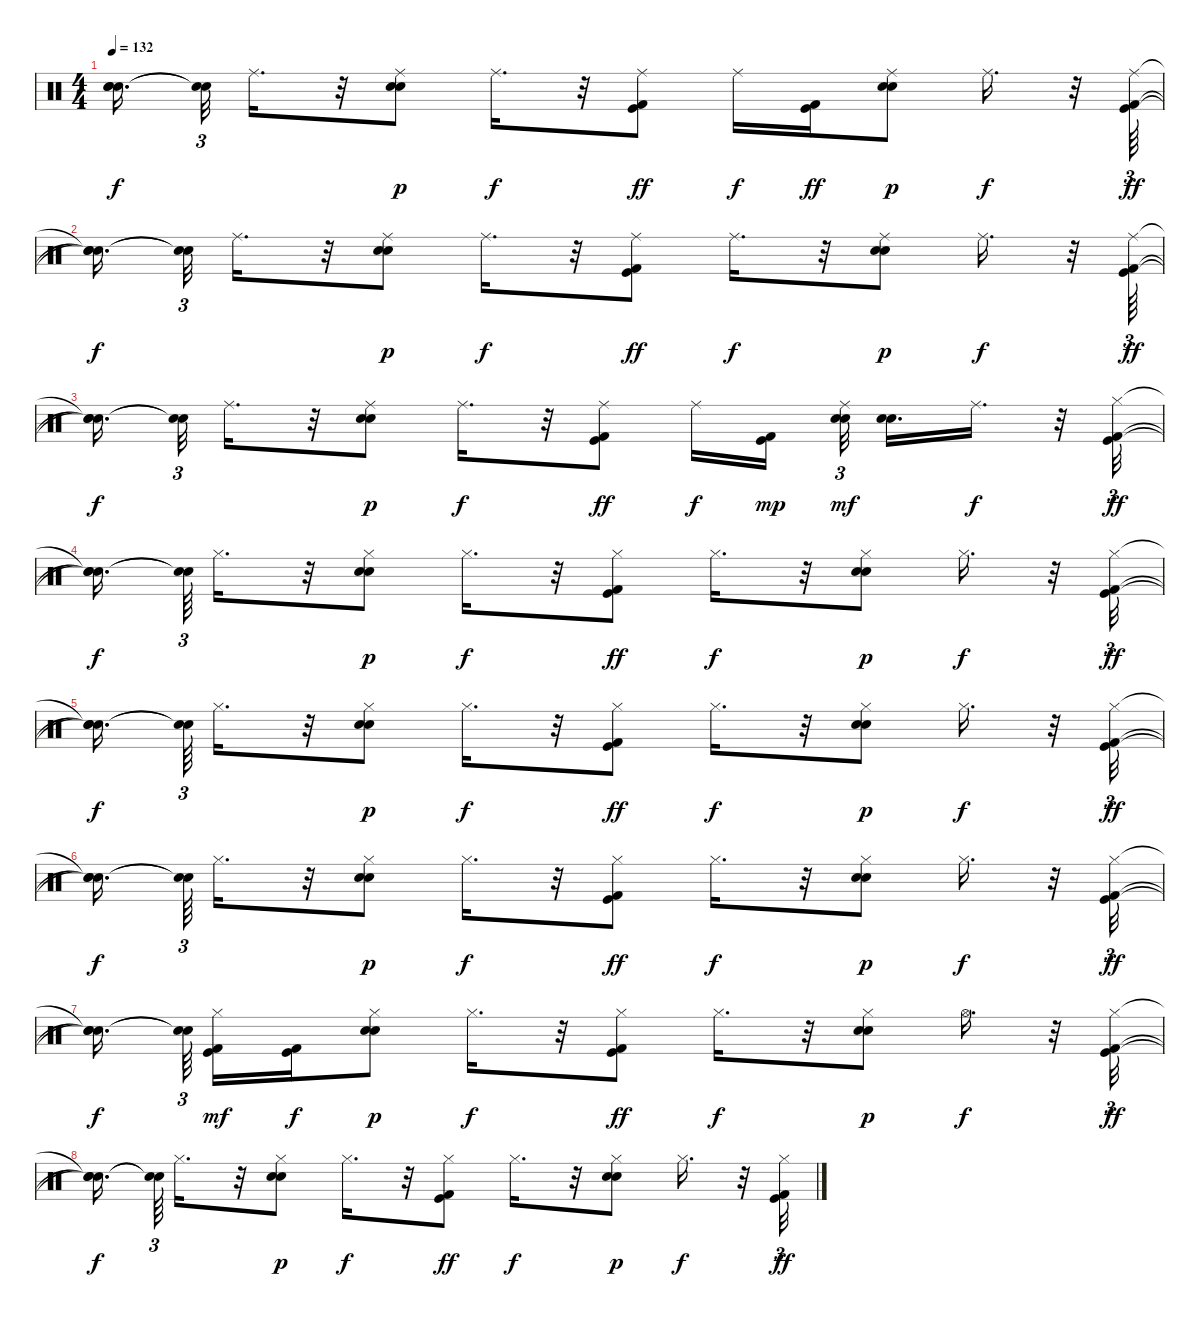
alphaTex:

\track "" {instrument percussion}
\staff {score}
\articulation defaults
\ts (4 4)
\tempo 132
\clef neutral
\ks c
("Snare (hit)"{t} "Snare (hit)"{t} "Snare (hit)"{t}).16{d dy f beam splitsecondary} ("Snare (hit)"{t} "Snare (hit)"{t}).32{tu (3 2)} "Ride (middle)".16{d} r.32 ("Electric Snare (hit)" "Snare (hit) 2" "Ride (middle)").8{dy p} "Ride (middle)".16{d dy f} r.32 ("Kick (hit) 2" "Kick (hit)" "Ride (middle)").8{dy ff} "Ride (middle)".16{dy f} ("Kick (hit) 2" "Kick (hit)").16{dy ff} ("Electric Snare (hit)" "Snare (hit) 2" "Ride (middle)").8{dy p} "Ride (middle)".16{d dy f} r.32 ("Kick (hit) 2" "Kick (hit)" "Ride (middle)").64{tu (3 2) dy ff} |
("Snare (hit)"{t} "Snare (hit)"{t} "Snare (hit)"{t}).16{d dy f beam splitsecondary} ("Snare (hit)"{t} "Snare (hit)"{t}).32{tu (3 2)} "Ride (middle)".16{d} r.32 ("Electric Snare (hit)" "Snare (hit) 2" "Ride (middle)").8{dy p} "Ride (middle)".16{d dy f} r.32 ("Kick (hit) 2" "Kick (hit)" "Ride (middle)").8{dy ff} "Ride (middle)".16{d dy f} r.32 ("Electric Snare (hit)" "Snare (hit) 2" "Ride (middle)").8{dy p} "Ride (middle)".16{d dy f} r.32 ("Kick (hit) 2" "Kick (hit)" "Ride (middle)").64{tu (3 2) dy ff} |
("Snare (hit)"{t} "Snare (hit)"{t} "Snare (hit)"{t}).16{d dy f beam splitsecondary} ("Snare (hit)"{t} "Snare (hit)"{t}).32{tu (3 2)} "Ride (middle)".16{d} r.32 ("Electric Snare (hit)" "Snare (hit) 2" "Ride (middle)").8{dy p} "Ride (middle)".16{d dy f} r.32 ("Kick (hit) 2" "Kick (hit)" "Ride (middle)").8{dy ff} "Ride (middle)".16{dy f} ("Kick (hit)" "Kick (hit) 2").16{dy mp beam splitsecondary} ("Electric Snare (hit)" "Snare (hit) 2" "Ride (middle)").32{tu (3 2) dy mf} ("Electric Snare (hit)" "Snare (hit) 2").16{d} "Ride (middle)".16{d dy f} r.32 ("Kick (hit) 2" "Kick (hit)" "Hi-Hat (closed)").32{tu (3 2) dy ff} |
("Snare (hit)"{t} "Snare (hit)"{t} "Snare (hit)"{t}).16{d dy f beam splitsecondary} ("Snare (hit)"{t} "Snare (hit)"{t}).64{tu (3 2)} "Hi-Hat (closed)".16{d} r.32 ("Electric Snare (hit)" "Snare (hit) 2" "Hi-Hat (closed)").8{dy p} "Hi-Hat (closed)".16{d dy f} r.32 ("Kick (hit) 2" "Kick (hit)" "Hi-Hat (closed)").8{dy ff} "Hi-Hat (closed)".16{d dy f} r.32 ("Electric Snare (hit)" "Snare (hit) 2" "Hi-Hat (closed)").8{dy p} "Hi-Hat (closed)".16{d dy f} r.32 ("Kick (hit) 2" "Kick (hit)" "Hi-Hat (closed)").32{tu (3 2) dy ff} |
("Snare (hit)"{t} "Snare (hit)"{t} "Snare (hit)"{t}).16{d dy f beam splitsecondary} ("Snare (hit)"{t} "Snare (hit)"{t}).64{tu (3 2)} "Hi-Hat (closed)".16{d} r.32 ("Electric Snare (hit)" "Snare (hit) 2" "Hi-Hat (closed)").8{dy p} "Hi-Hat (closed)".16{d dy f} r.32 ("Kick (hit) 2" "Kick (hit)" "Hi-Hat (closed)").8{dy ff} "Hi-Hat (closed)".16{d dy f} r.32 ("Electric Snare (hit)" "Snare (hit) 2" "Hi-Hat (closed)").8{dy p} "Hi-Hat (closed)".16{d dy f} r.32 ("Kick (hit) 2" "Kick (hit)" "Hi-Hat (closed)").32{tu (3 2) dy ff} |
("Snare (hit)"{t} "Snare (hit)"{t} "Snare (hit)"{t}).16{d dy f beam splitsecondary} ("Snare (hit)"{t} "Snare (hit)"{t}).64{tu (3 2)} "Hi-Hat (closed)".16{d} r.32 ("Electric Snare (hit)" "Snare (hit) 2" "Hi-Hat (closed)").8{dy p} "Hi-Hat (closed)".16{d dy f} r.32 ("Kick (hit) 2" "Kick (hit)" "Hi-Hat (closed)").8{dy ff} "Hi-Hat (closed)".16{d dy f} r.32 ("Electric Snare (hit)" "Snare (hit) 2" "Hi-Hat (closed)").8{dy p} "Hi-Hat (closed)".16{d dy f} r.32 ("Kick (hit) 2" "Kick (hit)" "Hi-Hat (closed)").32{tu (3 2) dy ff} |
("Snare (hit)"{t} "Snare (hit)"{t} "Snare (hit)"{t}).16{d dy f beam splitsecondary} ("Snare (hit)"{t} "Snare (hit)"{t}).64{tu (3 2) beam splitsecondary} ("Kick (hit) 2" "Kick (hit)" "Hi-Hat (closed)").16{dy mf} ("Kick (hit)" "Kick (hit) 2").16{dy f} ("Electric Snare (hit)" "Snare (hit) 2" "Hi-Hat (closed)").8{dy p} "Hi-Hat (closed)".16{d dy f} r.32 ("Kick (hit) 2" "Kick (hit)" "Hi-Hat (closed)").8{dy ff} "Hi-Hat (closed)".16{d dy f} r.32 ("Electric Snare (hit)" "Snare (hit) 2" "Hi-Hat (closed)").8{dy p} "Hi-Hat (open)".16{d dy f} r.32 ("Kick (hit) 2" "Kick (hit)" "Hi-Hat (closed)").32{tu (3 2) dy ff} |
("Snare (hit)"{t} "Snare (hit)"{t} "Snare (hit)"{t}).16{d dy f beam splitsecondary} ("Snare (hit)"{t} "Snare (hit)"{t}).64{tu (3 2)} "Hi-Hat (closed)".16{d} r.32 ("Electric Snare (hit)" "Snare (hit) 2" "Hi-Hat (closed)").8{dy p} "Hi-Hat (closed)".16{d dy f} r.32 ("Kick (hit) 2" "Kick (hit)" "Hi-Hat (closed)").8{dy ff} "Hi-Hat (closed)".16{d dy f} r.32 ("Electric Snare (hit)" "Snare (hit) 2" "Hi-Hat (closed)").8{dy p} "Hi-Hat (closed)".16{d dy f} r.32 ("Kick (hit) 2" "Kick (hit)" "Hi-Hat (closed)").32{tu (3 2) dy ff}
